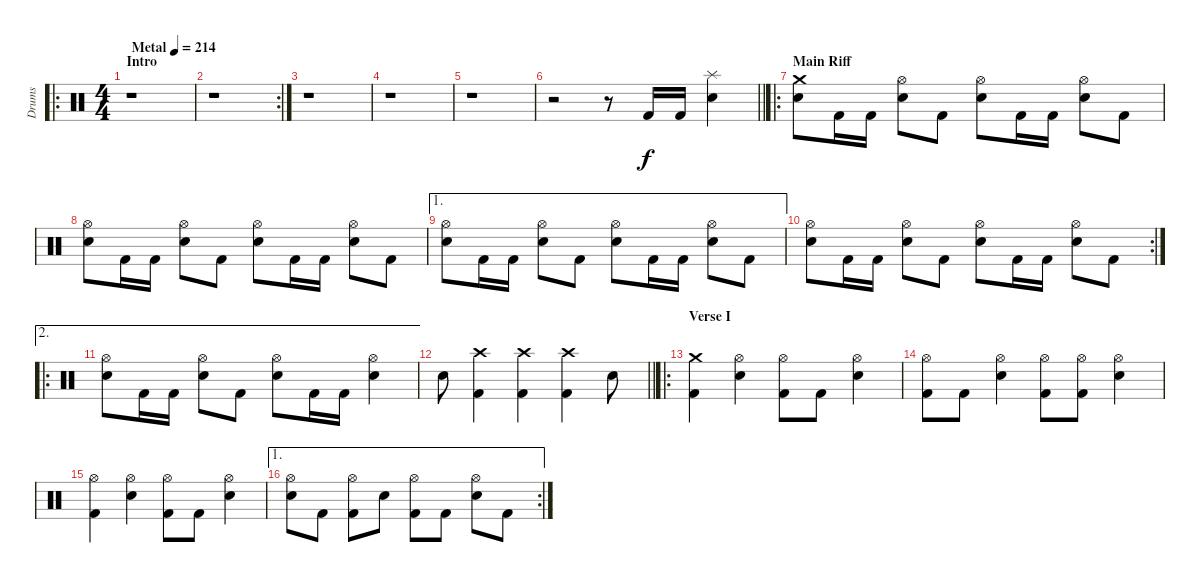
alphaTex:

\track ("Drums" "Drums") {instrument percussion}
\staff {score}
\articulation defaults
\ro
\ts (4 4)
\section ("" "Intro")
\tempo (214 "Metal")
\clef neutral
\ks c
r.1{dy f} |
\rc 2
r.1 |
r.1 |
r.1 |
r.1 |
\barLineRight lightlight
r.2 r.8 "Kick (hit) 2".16{volume 16 balance 8} "Kick (hit) 2".16 ("Splash (hit)" "Electric Snare (hit)").4 |
\ro
\section ("" "Main Riff")
("Crash medium (hit)" "Electric Snare (hit)").8 "Kick (hit) 2".16 "Kick (hit) 2".16 ("Hi-Hat (open)" "Electric Snare (hit)").8 "Kick (hit) 2".8 ("Hi-Hat (open)" "Electric Snare (hit)").8 "Kick (hit) 2".16 "Kick (hit) 2".16 ("Hi-Hat (open)" "Electric Snare (hit)").8 "Kick (hit) 2".8 |
("Hi-Hat (open)" "Electric Snare (hit)").8 "Kick (hit) 2".16 "Kick (hit) 2".16 ("Hi-Hat (open)" "Electric Snare (hit)").8 "Kick (hit) 2".8 ("Hi-Hat (open)" "Electric Snare (hit)").8 "Kick (hit) 2".16 "Kick (hit) 2".16 ("Hi-Hat (open)" "Electric Snare (hit)").8 "Kick (hit) 2".8 |
\ae 1
("Hi-Hat (open)" "Electric Snare (hit)").8 "Kick (hit) 2".16 "Kick (hit) 2".16 ("Hi-Hat (open)" "Electric Snare (hit)").8 "Kick (hit) 2".8 ("Hi-Hat (open)" "Electric Snare (hit)").8 "Kick (hit) 2".16 "Kick (hit) 2".16 ("Hi-Hat (open)" "Electric Snare (hit)").8 "Kick (hit) 2".8 |
\rc 2
("Hi-Hat (open)" "Electric Snare (hit)").8 "Kick (hit) 2".16 "Kick (hit) 2".16 ("Hi-Hat (open)" "Electric Snare (hit)").8 "Kick (hit) 2".8 ("Hi-Hat (open)" "Electric Snare (hit)").8 "Kick (hit) 2".16 "Kick (hit) 2".16 ("Hi-Hat (open)" "Electric Snare (hit)").8 "Kick (hit) 2".8 |
\ae 2
\ro
("Hi-Hat (open)" "Electric Snare (hit)").8 "Kick (hit) 2".16 "Kick (hit) 2".16 ("Hi-Hat (open)" "Electric Snare (hit)").8 "Kick (hit) 2".8 ("Hi-Hat (open)" "Electric Snare (hit)").8 "Kick (hit) 2".16 "Kick (hit) 2".16 ("Hi-Hat (open)" "Electric Snare (hit)").4 |
\barLineRight lightlight "Electric Snare (hit)".8
("Crash high (hit)" "Kick (hit) 2").4 ("Crash high (hit)" "Kick (hit) 2").4 ("Crash high (hit)" "Kick (hit) 2").4 "Electric Snare (hit)".8 |
\ro
\section ("" "Verse I")
("Crash medium (hit)" "Kick (hit) 2").4 ("Hi-Hat (open)" "Electric Snare (hit)").4 ("Hi-Hat (open)" "Kick (hit) 2").8 "Kick (hit) 2".8 ("Hi-Hat (open)" "Electric Snare (hit)").4 |
("Hi-Hat (open)" "Kick (hit) 2").8 "Kick (hit) 2".8 ("Hi-Hat (open)" "Electric Snare (hit)").4 ("Hi-Hat (open)" "Kick (hit) 2").8 ("Hi-Hat (open)" "Kick (hit) 2").8 ("Hi-Hat (open)" "Electric Snare (hit)").4 |
("Hi-Hat (open)" "Kick (hit) 2").4 ("Hi-Hat (open)" "Electric Snare (hit)").4 ("Hi-Hat (open)" "Kick (hit) 2").8 "Kick (hit) 2".8 ("Hi-Hat (open)" "Electric Snare (hit)").4 |
\ae 1
\rc 2
("Hi-Hat (open)" "Electric Snare (hit)").8 "Kick (hit) 2".8 ("Hi-Hat (open)" "Kick (hit) 2").8 "Electric Snare (hit)".8 ("Hi-Hat (open)" "Kick (hit) 2").8 "Kick (hit) 2".8 ("Hi-Hat (open)" "Electric Snare (hit)").8 "Kick (hit) 2".8
